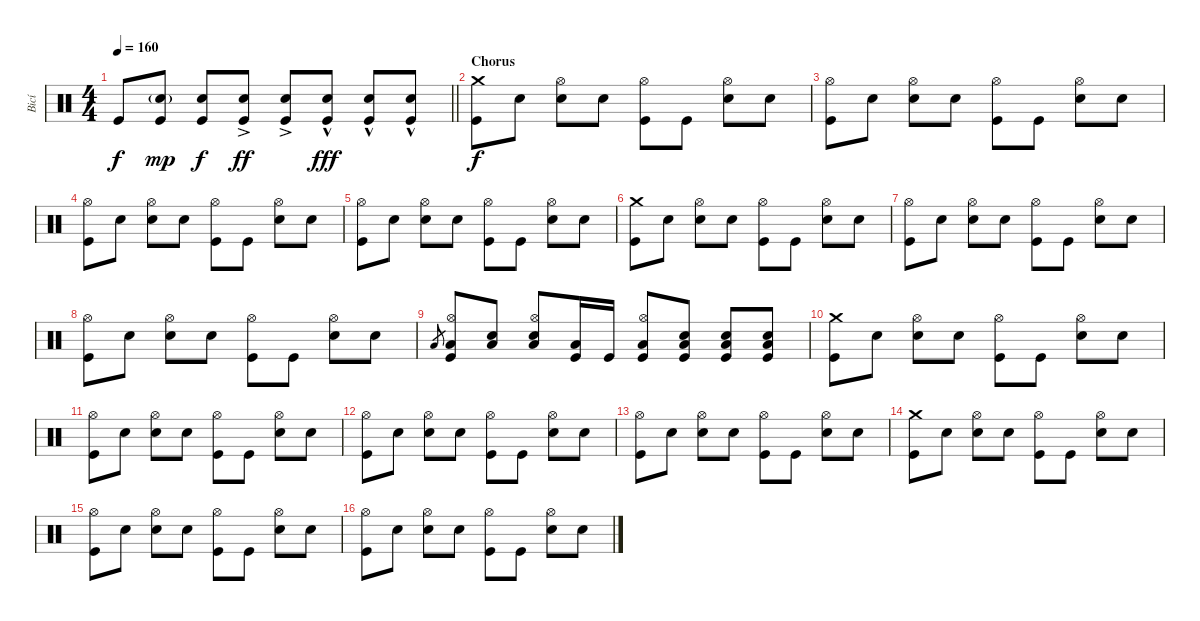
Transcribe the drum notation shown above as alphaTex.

\track ("Bicí" "Bicí") {instrument percussion}
\staff {score}
\articulation defaults
\ts (4 4)
\tempo 160
\clef neutral
\barLineRight lightlight
\ks c "Kick (hit)".8{dy f}
("Electric Snare (hit)"{g} "Kick (hit)").8{dy mp} ("Electric Snare (hit)" "Kick (hit)").8{dy f} ("Electric Snare (hit)"{ac} "Kick (hit)").8{dy ff} ("Electric Snare (hit)"{ac} "Kick (hit)").8 ("Electric Snare (hit)"{hac} "Kick (hit)").8{dy fff} ("Electric Snare (hit)"{hac} "Kick (hit)").8 ("Electric Snare (hit)"{hac} "Kick (hit)").8 |
\section ("" "Chorus")
("Crash medium (hit)" "Kick (hit)").8{dy f} "Snare (hit)".8 ("Hi-Hat (open)" "Electric Snare (hit)").8 "Snare (hit)".8 ("Hi-Hat (open)" "Kick (hit)").8 "Kick (hit)".8 ("Hi-Hat (open)" "Electric Snare (hit)").8 "Snare (hit)".8 |
("Hi-Hat (open)" "Kick (hit)").8 "Snare (hit)".8 ("Hi-Hat (open)" "Electric Snare (hit)").8 "Snare (hit)".8 ("Hi-Hat (open)" "Kick (hit)").8 "Kick (hit)".8 ("Hi-Hat (open)" "Electric Snare (hit)").8 "Snare (hit)".8 |
("Hi-Hat (open)" "Kick (hit)").8 "Snare (hit)".8 ("Hi-Hat (open)" "Electric Snare (hit)").8 "Snare (hit)".8 ("Hi-Hat (open)" "Kick (hit)").8 "Kick (hit)".8 ("Hi-Hat (open)" "Electric Snare (hit)").8 "Snare (hit)".8 |
("Hi-Hat (open)" "Kick (hit)").8 "Snare (hit)".8 ("Hi-Hat (open)" "Electric Snare (hit)").8 "Snare (hit)".8 ("Hi-Hat (open)" "Kick (hit)").8 "Kick (hit)".8 ("Hi-Hat (open)" "Electric Snare (hit)").8 "Snare (hit)".8 |
("Crash medium (hit)" "Kick (hit)").8 "Snare (hit)".8 ("Hi-Hat (open)" "Electric Snare (hit)").8 "Snare (hit)".8 ("Hi-Hat (open)" "Kick (hit)").8 "Kick (hit)".8 ("Hi-Hat (open)" "Electric Snare (hit)").8 "Snare (hit)".8 |
("Hi-Hat (open)" "Kick (hit)").8 "Snare (hit)".8 ("Hi-Hat (open)" "Electric Snare (hit)").8 "Snare (hit)".8 ("Hi-Hat (open)" "Kick (hit)").8 "Kick (hit)".8 ("Hi-Hat (open)" "Electric Snare (hit)").8 "Snare (hit)".8 |
("Hi-Hat (open)" "Kick (hit)").8 "Snare (hit)".8 ("Hi-Hat (open)" "Electric Snare (hit)").8 "Snare (hit)".8 ("Hi-Hat (open)" "Kick (hit)").8 "Kick (hit)".8 ("Hi-Hat (open)" "Electric Snare (hit)").8 "Snare (hit)".8 |
"Low Tom (hit)".8{gr} ("Hi-Hat (open)" "Low Tom (hit)" "Kick (hit)").8 ("Low Tom (hit)" "Snare (hit)").8 ("Hi-Hat (open)" "Low Tom (hit)" "Electric Snare (hit)").8 ("Low Tom (hit)" "Kick (hit)").16 "Kick (hit)".16 ("Hi-Hat (open)" "Low Tom (hit)" "Kick (hit)").8 ("Electric Snare (hit)" "Low Tom (hit)" "Kick (hit)").8 ("Electric Snare (hit)" "Low Tom (hit)" "Kick (hit)").8 ("Electric Snare (hit)" "Low Tom (hit)" "Kick (hit)").8 |
("Crash medium (hit)" "Kick (hit)").8 "Snare (hit)".8 ("Hi-Hat (open)" "Electric Snare (hit)").8 "Snare (hit)".8 ("Hi-Hat (open)" "Kick (hit)").8 "Kick (hit)".8 ("Hi-Hat (open)" "Electric Snare (hit)").8 "Snare (hit)".8 |
("Hi-Hat (open)" "Kick (hit)").8 "Snare (hit)".8 ("Hi-Hat (open)" "Electric Snare (hit)").8 "Snare (hit)".8 ("Hi-Hat (open)" "Kick (hit)").8 "Kick (hit)".8 ("Hi-Hat (open)" "Electric Snare (hit)").8 "Snare (hit)".8 |
("Hi-Hat (open)" "Kick (hit)").8 "Snare (hit)".8 ("Hi-Hat (open)" "Electric Snare (hit)").8 "Snare (hit)".8 ("Hi-Hat (open)" "Kick (hit)").8 "Kick (hit)".8 ("Hi-Hat (open)" "Electric Snare (hit)").8 "Snare (hit)".8 |
("Hi-Hat (open)" "Kick (hit)").8 "Snare (hit)".8 ("Hi-Hat (open)" "Electric Snare (hit)").8 "Snare (hit)".8 ("Hi-Hat (open)" "Kick (hit)").8 "Kick (hit)".8 ("Hi-Hat (open)" "Electric Snare (hit)").8 "Snare (hit)".8 |
("Crash medium (hit)" "Kick (hit)").8 "Snare (hit)".8 ("Hi-Hat (open)" "Electric Snare (hit)").8 "Snare (hit)".8 ("Hi-Hat (open)" "Kick (hit)").8 "Kick (hit)".8 ("Hi-Hat (open)" "Electric Snare (hit)").8 "Snare (hit)".8 |
("Hi-Hat (open)" "Kick (hit)").8 "Snare (hit)".8 ("Hi-Hat (open)" "Electric Snare (hit)").8 "Snare (hit)".8 ("Hi-Hat (open)" "Kick (hit)").8 "Kick (hit)".8 ("Hi-Hat (open)" "Electric Snare (hit)").8 "Snare (hit)".8 |
("Hi-Hat (open)" "Kick (hit)").8 "Snare (hit)".8 ("Hi-Hat (open)" "Electric Snare (hit)").8 "Snare (hit)".8 ("Hi-Hat (open)" "Kick (hit)").8 "Kick (hit)".8 ("Hi-Hat (open)" "Electric Snare (hit)").8 "Snare (hit)".8
